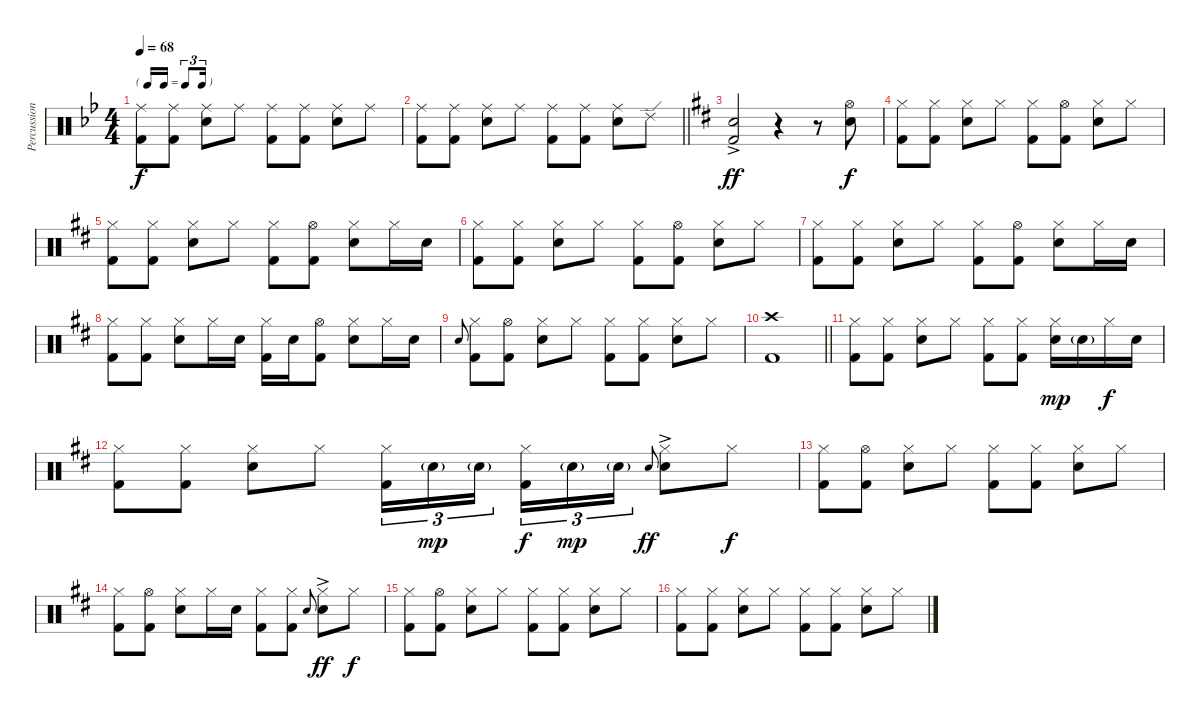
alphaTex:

\track ("Percussion" "Percussion") {instrument percussion}
\staff {score}
\articulation defaults
\ts (4 4)
\tf triplet16th
\tempo 68
\clef neutral
\ks bb
("Ride (middle)" "Kick (hit) 2").8{dy f} ("Ride (middle)" "Kick (hit) 2").8 ("Ride (middle)" "Snare (hit) 2").8 "Ride (middle)".8 ("Ride (middle)" "Kick (hit) 2").8 ("Ride (middle)" "Kick (hit) 2").8 ("Ride (middle)" "Snare (hit) 2").8 "Ride (middle)".8 |
\barLineRight lightlight
("Ride (middle)" "Kick (hit) 2").8 ("Ride (middle)" "Kick (hit) 2").8 ("Ride (middle)" "Snare (hit) 2").8 "Ride (middle)".8 ("Ride (middle)" "Kick (hit) 2").8 ("Ride (middle)" "Kick (hit) 2").8 ("Ride (middle)" "Snare (hit) 2").8 "Ride (edge) 2".8 |
\ks d
("Snare (hit) 2"{ac} "Kick (hit) 2").2{dy ff} r.4 r.8 ("Hi-Hat (open)" "Snare (hit) 2").8{dy f} |
("Hi-Hat (closed)" "Kick (hit) 2").8 ("Hi-Hat (closed)" "Kick (hit) 2").8 ("Hi-Hat (closed)" "Snare (hit) 2").8 "Hi-Hat (closed)".8 ("Hi-Hat (closed)" "Kick (hit) 2").8 ("Hi-Hat (open)" "Kick (hit) 2").8 ("Hi-Hat (closed)" "Snare (hit) 2").8 "Hi-Hat (closed)".8 |
("Hi-Hat (closed)" "Kick (hit) 2").8 ("Hi-Hat (closed)" "Kick (hit) 2").8 ("Hi-Hat (closed)" "Snare (hit) 2").8 "Hi-Hat (closed)".8 ("Hi-Hat (closed)" "Kick (hit) 2").8 ("Hi-Hat (open)" "Kick (hit) 2").8 ("Hi-Hat (closed)" "Snare (hit) 2").8 "Hi-Hat (closed)".16 "Snare (hit) 2".16 |
("Hi-Hat (closed)" "Kick (hit) 2").8 ("Hi-Hat (closed)" "Kick (hit) 2").8 ("Hi-Hat (closed)" "Snare (hit) 2").8 "Hi-Hat (closed)".8 ("Hi-Hat (closed)" "Kick (hit) 2").8 ("Hi-Hat (open)" "Kick (hit) 2").8 ("Hi-Hat (closed)" "Snare (hit) 2").8 "Hi-Hat (closed)".8 |
("Hi-Hat (closed)" "Kick (hit) 2").8 ("Hi-Hat (closed)" "Kick (hit) 2").8 ("Hi-Hat (closed)" "Snare (hit) 2").8 "Hi-Hat (closed)".8 ("Hi-Hat (closed)" "Kick (hit) 2").8 ("Hi-Hat (open)" "Kick (hit) 2").8 ("Hi-Hat (closed)" "Snare (hit) 2").8 "Hi-Hat (closed)".16 "Snare (hit) 2".16 |
("Hi-Hat (closed)" "Kick (hit) 2").8 ("Hi-Hat (closed)" "Kick (hit) 2").8 ("Hi-Hat (closed)" "Snare (hit) 2").8 "Hi-Hat (closed)".16 "Snare (hit) 2".16 ("Hi-Hat (closed)" "Kick (hit) 2").16 "Snare (hit) 2".16 ("Hi-Hat (open)" "Kick (hit) 2").8 ("Hi-Hat (closed)" "Snare (hit) 2").8 "Hi-Hat (closed)".16 "Snare (hit) 2".16 |
"Snare (hit) 2".8{gr onbeat} ("Hi-Hat (closed)" "Kick (hit) 2").8 ("Hi-Hat (open)" "Kick (hit) 2").8 ("Hi-Hat (closed)" "Snare (hit) 2").8 "Hi-Hat (closed)".8 ("Hi-Hat (closed)" "Kick (hit) 2").8 ("Hi-Hat (closed)" "Kick (hit) 2").8 ("Hi-Hat (closed)" "Snare (hit) 2").8 "Hi-Hat (closed)".8 |
\barLineRight lightlight
("Crash high (hit)" "Kick (hit) 2").1 |
("Hi-Hat (closed)" "Kick (hit) 2").8 ("Hi-Hat (closed)" "Kick (hit) 2").8 ("Hi-Hat (closed)" "Snare (hit) 2").8 "Hi-Hat (closed)".8 ("Hi-Hat (closed)" "Kick (hit) 2").8 ("Hi-Hat (closed)" "Kick (hit) 2").8 ("Hi-Hat (closed)" "Snare (hit) 2").16{dy mp} "Snare (hit) 2"{g}.16 "Hi-Hat (closed)".16{dy f} "Snare (hit) 2".16 |
("Hi-Hat (closed)" "Kick (hit) 2").8 ("Hi-Hat (closed)" "Kick (hit) 2").8 ("Hi-Hat (closed)" "Snare (hit) 2").8 "Hi-Hat (closed)".8 ("Hi-Hat (closed)" "Kick (hit) 2").16{tu (3 2)} "Snare (hit) 2"{g}.16{tu (3 2) dy mp} "Snare (hit) 2"{g}.16{tu (3 2) beam splitsecondary} ("Hi-Hat (closed)" "Kick (hit) 2").16{tu (3 2) dy f} "Snare (hit) 2"{g}.16{tu (3 2) dy mp} "Snare (hit) 2"{g}.16{tu (3 2)} "Snare (hit) 2".8{gr onbeat dy ff} ("Hi-Hat (closed)" "Snare (hit) 2"{ac}).8 "Hi-Hat (closed)".8{dy f} |
("Hi-Hat (closed)" "Kick (hit) 2").8 ("Hi-Hat (open)" "Kick (hit) 2").8 ("Hi-Hat (closed)" "Snare (hit) 2").8 "Hi-Hat (closed)".8 ("Hi-Hat (closed)" "Kick (hit) 2").8 ("Hi-Hat (closed)" "Kick (hit) 2").8 ("Hi-Hat (closed)" "Snare (hit) 2").8 "Hi-Hat (closed)".8 |
("Hi-Hat (closed)" "Kick (hit) 2").8 ("Hi-Hat (open)" "Kick (hit) 2").8 ("Hi-Hat (closed)" "Snare (hit) 2").8 "Hi-Hat (closed)".16 "Snare (hit) 2".16 ("Hi-Hat (closed)" "Kick (hit) 2").8 ("Hi-Hat (closed)" "Kick (hit) 2").8 "Snare (hit) 2".8{gr onbeat} ("Hi-Hat (closed)" "Snare (hit) 2"{ac}).8{dy ff} "Hi-Hat (closed)".8{dy f} |
("Hi-Hat (closed)" "Kick (hit) 2").8 ("Hi-Hat (open)" "Kick (hit) 2").8 ("Hi-Hat (closed)" "Snare (hit) 2").8 "Hi-Hat (closed)".8 ("Hi-Hat (closed)" "Kick (hit) 2").8 ("Hi-Hat (closed)" "Kick (hit) 2").8 ("Hi-Hat (closed)" "Snare (hit) 2").8 "Hi-Hat (closed)".8 |
("Hi-Hat (closed)" "Kick (hit) 2").8 ("Hi-Hat (closed)" "Kick (hit) 2").8 ("Hi-Hat (closed)" "Snare (hit) 2").8 "Hi-Hat (closed)".8 ("Hi-Hat (closed)" "Kick (hit) 2").8 ("Hi-Hat (closed)" "Kick (hit) 2").8 ("Hi-Hat (closed)" "Snare (hit) 2").8 "Hi-Hat (closed)".8
